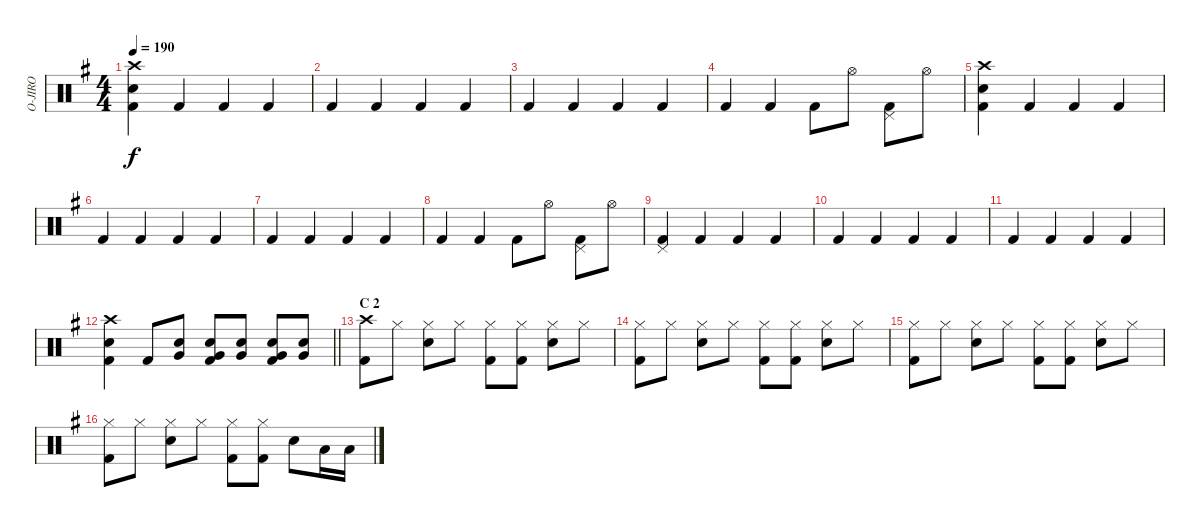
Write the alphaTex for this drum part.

\track ("O-JIRO" "O-JIRO") {instrument percussion}
\staff {score}
\articulation defaults
\ts (4 4)
\tempo 190
\clef neutral
\ks g
("Crash high (hit)" "Snare (hit) 2" "Kick (hit) 2").4{dy f} "Kick (hit) 2".4 "Kick (hit) 2".4 "Kick (hit) 2".4 |
"Kick (hit) 2".4 "Kick (hit) 2".4 "Kick (hit) 2".4 "Kick (hit) 2".4 |
"Kick (hit) 2".4 "Kick (hit) 2".4 "Kick (hit) 2".4 "Kick (hit) 2".4 |
"Kick (hit) 2".4 "Kick (hit) 2".4 "Kick (hit) 2".8 "Hi-Hat (open)".8 ("Pedal Hi-Hat (hit)" "Kick (hit) 2").8 "Hi-Hat (open)".8 |
("Crash high (hit)" "Snare (hit) 2" "Kick (hit) 2").4 "Kick (hit) 2".4 "Kick (hit) 2".4 "Kick (hit) 2".4 |
"Kick (hit) 2".4 "Kick (hit) 2".4 "Kick (hit) 2".4 "Kick (hit) 2".4 |
"Kick (hit) 2".4 "Kick (hit) 2".4 "Kick (hit) 2".4 "Kick (hit) 2".4 |
"Kick (hit) 2".4 "Kick (hit) 2".4 "Kick (hit) 2".8 "Hi-Hat (open)".8 ("Pedal Hi-Hat (hit)" "Kick (hit) 2").8 "Hi-Hat (open)".8 |
("Pedal Hi-Hat (hit)" "Kick (hit) 2").4 "Kick (hit) 2".4 "Kick (hit) 2".4 "Kick (hit) 2".4 |
"Kick (hit) 2".4 "Kick (hit) 2".4 "Kick (hit) 2".4 "Kick (hit) 2".4 |
"Kick (hit) 2".4 "Kick (hit) 2".4 "Kick (hit) 2".4 "Kick (hit) 2".4 |
\barLineRight lightlight
("Crash high (hit)" "Snare (hit) 2" "Kick (hit) 2").4 "Kick (hit) 2".8 ("Very Low Tom (hit)" "Snare (hit) 2").8 ("Very Low Tom (hit)" "Snare (hit) 2" "Kick (hit) 2").8 ("Very Low Tom (hit)" "Snare (hit) 2").8 ("Very Low Tom (hit)" "Snare (hit) 2" "Kick (hit) 2").8 ("Very Low Tom (hit)" "Snare (hit) 2").8 |
\section ("" "C 2")
("Crash high (hit)" "Kick (hit) 2").8 "Hi-Hat (closed)".8 ("Hi-Hat (closed)" "Snare (hit) 2").8 "Hi-Hat (closed)".8 ("Hi-Hat (closed)" "Kick (hit) 2").8 ("Hi-Hat (closed)" "Kick (hit) 2").8 ("Hi-Hat (closed)" "Snare (hit) 2").8 "Hi-Hat (closed)".8 |
("Hi-Hat (closed)" "Kick (hit) 2").8 "Hi-Hat (closed)".8 ("Hi-Hat (closed)" "Snare (hit) 2").8 "Hi-Hat (closed)".8 ("Hi-Hat (closed)" "Kick (hit) 2").8 ("Hi-Hat (closed)" "Kick (hit) 2").8 ("Hi-Hat (closed)" "Snare (hit) 2").8 "Hi-Hat (closed)".8 |
("Hi-Hat (closed)" "Kick (hit) 2").8 "Hi-Hat (closed)".8 ("Hi-Hat (closed)" "Snare (hit) 2").8 "Hi-Hat (closed)".8 ("Hi-Hat (closed)" "Kick (hit) 2").8 ("Hi-Hat (closed)" "Kick (hit) 2").8 ("Hi-Hat (closed)" "Snare (hit) 2").8 "Hi-Hat (closed)".8 |
("Hi-Hat (closed)" "Kick (hit) 2").8 "Hi-Hat (closed)".8 ("Hi-Hat (closed)" "Snare (hit) 2").8 "Hi-Hat (closed)".8 ("Hi-Hat (closed)" "Kick (hit) 2").8 ("Hi-Hat (closed)" "Kick (hit) 2").8 "Snare (hit) 2".8 "Low Tom (hit)".16 "Low Tom (hit)".16
